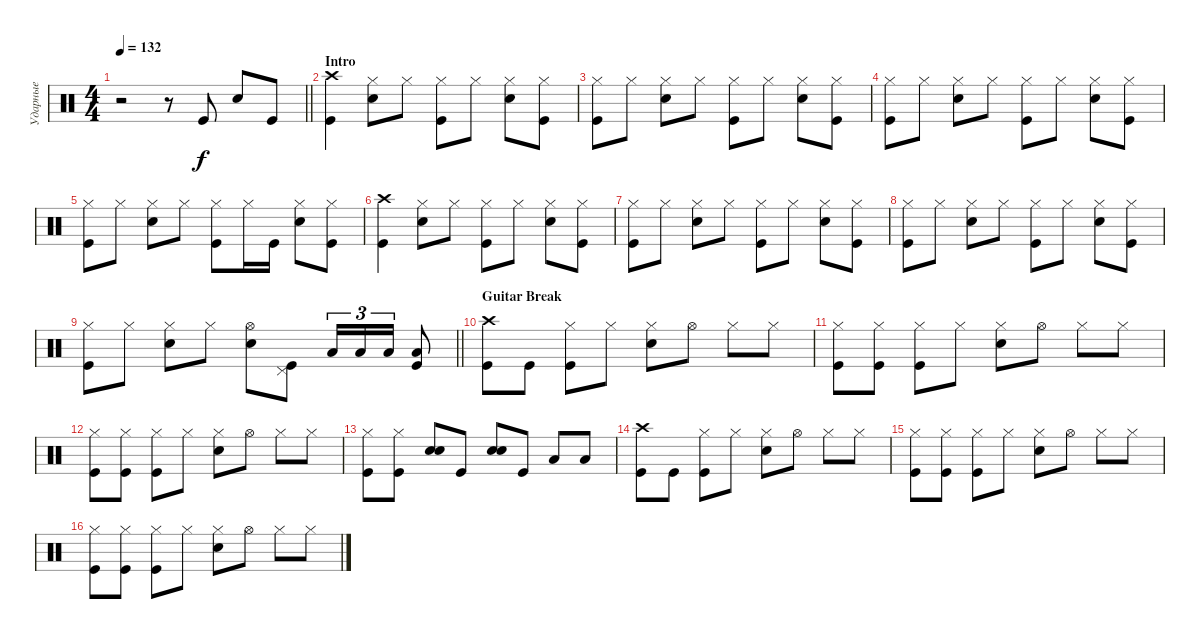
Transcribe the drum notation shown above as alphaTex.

\track ("Ударные" "Ударные") {instrument percussion}
\staff {score}
\articulation defaults
\ts (4 4)
\tempo 132
\clef neutral
\barLineRight lightlight
\ks c
r.2{dy f} r.8 "Kick (hit)".8 "Snare (hit) 2".8 "Kick (hit)".8 |
\section ("" "Intro")
("Kick (hit)" "Crash high (hit)").4 ("Snare (hit) 2" "Hi-Hat (closed)").8 "Hi-Hat (closed)".8 ("Kick (hit)" "Hi-Hat (closed)").8 "Hi-Hat (closed)".8 ("Snare (hit) 2" "Hi-Hat (closed)").8 ("Kick (hit)" "Hi-Hat (closed)").8 |
("Kick (hit)" "Hi-Hat (closed)").8 "Hi-Hat (closed)".8 ("Snare (hit) 2" "Hi-Hat (closed)").8 "Hi-Hat (closed)".8 ("Kick (hit)" "Hi-Hat (closed)").8 "Hi-Hat (closed)".8 ("Snare (hit) 2" "Hi-Hat (closed)").8 ("Kick (hit)" "Hi-Hat (closed)").8 |
("Kick (hit)" "Hi-Hat (closed)").8 "Hi-Hat (closed)".8 ("Snare (hit) 2" "Hi-Hat (closed)").8 "Hi-Hat (closed)".8 ("Kick (hit)" "Hi-Hat (closed)").8 "Hi-Hat (closed)".8 ("Snare (hit) 2" "Hi-Hat (closed)").8 ("Kick (hit)" "Hi-Hat (closed)").8 |
("Kick (hit)" "Hi-Hat (closed)").8 "Hi-Hat (closed)".8 ("Snare (hit) 2" "Hi-Hat (closed)").8 "Hi-Hat (closed)".8 ("Kick (hit)" "Hi-Hat (closed)").8 "Hi-Hat (closed)".16 "Kick (hit)".16 ("Snare (hit) 2" "Hi-Hat (closed)").8 ("Kick (hit)" "Hi-Hat (closed)").8 |
("Kick (hit)" "Crash high (hit)").4 ("Snare (hit) 2" "Hi-Hat (closed)").8 "Hi-Hat (closed)".8 ("Kick (hit)" "Hi-Hat (closed)").8 "Hi-Hat (closed)".8 ("Snare (hit) 2" "Hi-Hat (closed)").8 ("Kick (hit)" "Hi-Hat (closed)").8 |
("Kick (hit)" "Hi-Hat (closed)").8 "Hi-Hat (closed)".8 ("Snare (hit) 2" "Hi-Hat (closed)").8 "Hi-Hat (closed)".8 ("Kick (hit)" "Hi-Hat (closed)").8 "Hi-Hat (closed)".8 ("Snare (hit) 2" "Hi-Hat (closed)").8 ("Kick (hit)" "Hi-Hat (closed)").8 |
("Kick (hit)" "Hi-Hat (closed)").8 "Hi-Hat (closed)".8 ("Snare (hit) 2" "Hi-Hat (closed)").8 "Hi-Hat (closed)".8 ("Kick (hit)" "Hi-Hat (closed)").8 "Hi-Hat (closed)".8 ("Snare (hit) 2" "Hi-Hat (closed)").8 ("Kick (hit)" "Hi-Hat (closed)").8 |
\barLineRight lightlight
("Kick (hit)" "Hi-Hat (closed)").8 "Hi-Hat (closed)".8 ("Snare (hit) 2" "Hi-Hat (closed)").8 "Hi-Hat (closed)".8 ("Snare (hit) 2" "Hi-Hat (open)").8 ("Kick (hit)" "Pedal Hi-Hat (hit)").8 "Low Tom (hit)".16{tu (3 2)} "Low Tom (hit)".16{tu (3 2)} "Low Tom (hit)".16{tu (3 2)} ("Kick (hit)" "Low Tom (hit)").8 |
\section ("" "Guitar Break")
("Kick (hit)" "Crash high (hit)").8 "Kick (hit)".8 ("Hi-Hat (closed)" "Kick (hit)").8 "Hi-Hat (closed)".8 ("Snare (hit) 2" "Hi-Hat (closed)").8 "Hi-Hat (open)".8 "Hi-Hat (closed)".8 "Hi-Hat (closed)".8 |
("Kick (hit)" "Hi-Hat (closed)").8 ("Hi-Hat (closed)" "Kick (hit)").8 ("Hi-Hat (closed)" "Kick (hit)").8 "Hi-Hat (closed)".8 ("Snare (hit) 2" "Hi-Hat (closed)").8 "Hi-Hat (open)".8 "Hi-Hat (closed)".8 "Hi-Hat (closed)".8 |
("Kick (hit)" "Hi-Hat (closed)").8 ("Hi-Hat (closed)" "Kick (hit)").8 ("Hi-Hat (closed)" "Kick (hit)").8 "Hi-Hat (closed)".8 ("Snare (hit) 2" "Hi-Hat (closed)").8 "Hi-Hat (open)".8 "Hi-Hat (closed)".8 "Hi-Hat (closed)".8 |
("Kick (hit)" "Hi-Hat (closed)").8 ("Kick (hit)" "Hi-Hat (closed)").8 ("Snare (hit) 2" "Snare (hit) 2").8{bd 240} "Kick (hit)".8 ("Snare (hit) 2" "Snare (hit) 2").8 "Kick (hit)".8 "Low Tom (hit)".8 "Low Tom (hit)".8 |
("Kick (hit)" "Crash high (hit)").8 "Kick (hit)".8 ("Hi-Hat (closed)" "Kick (hit)").8 "Hi-Hat (closed)".8 ("Snare (hit) 2" "Hi-Hat (closed)").8 "Hi-Hat (open)".8 "Hi-Hat (closed)".8 "Hi-Hat (closed)".8 |
("Kick (hit)" "Hi-Hat (closed)").8 ("Hi-Hat (closed)" "Kick (hit)").8 ("Hi-Hat (closed)" "Kick (hit)").8 "Hi-Hat (closed)".8 ("Snare (hit) 2" "Hi-Hat (closed)").8 "Hi-Hat (open)".8 "Hi-Hat (closed)".8 "Hi-Hat (closed)".8 |
("Kick (hit)" "Hi-Hat (closed)").8 ("Hi-Hat (closed)" "Kick (hit)").8 ("Hi-Hat (closed)" "Kick (hit)").8 "Hi-Hat (closed)".8 ("Snare (hit) 2" "Hi-Hat (closed)").8 "Hi-Hat (open)".8 "Hi-Hat (closed)".8 "Hi-Hat (closed)".8
